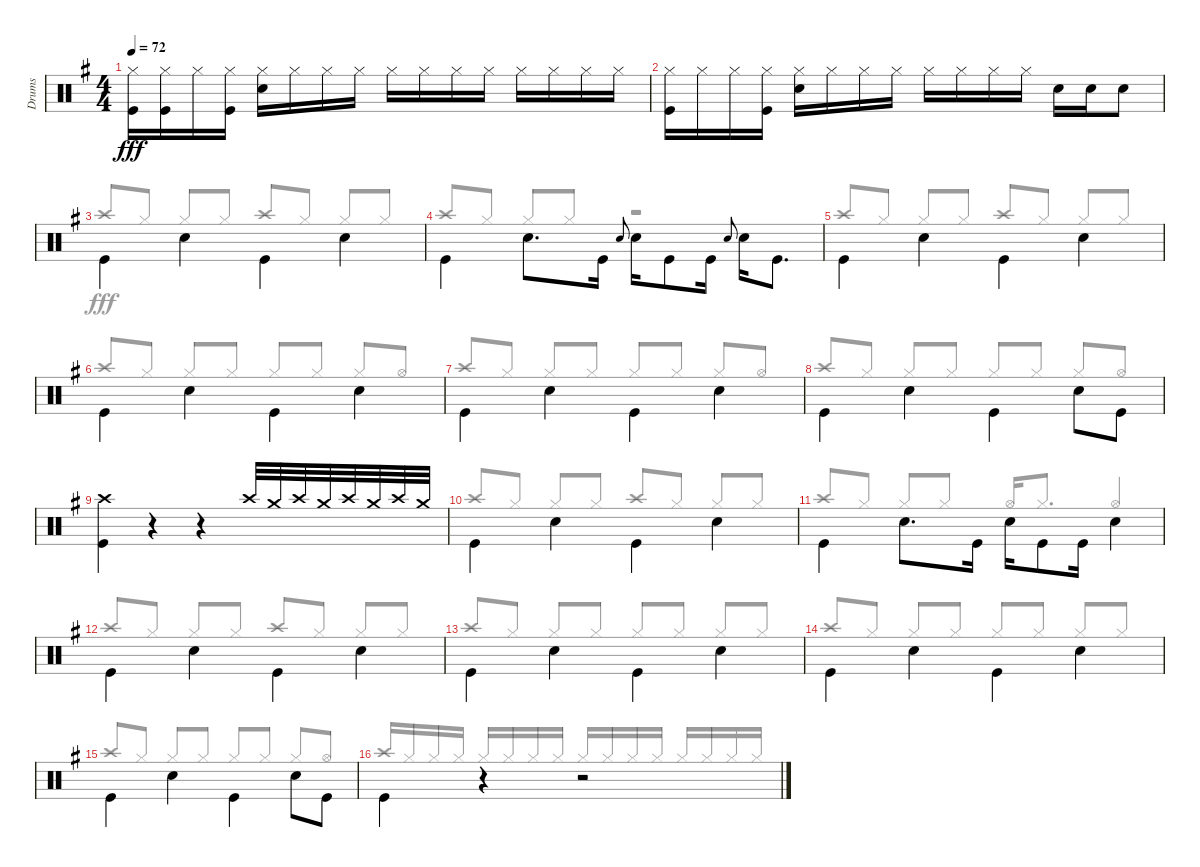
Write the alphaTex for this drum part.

\track ("Drums" "Drums") {instrument percussion}
\staff {score}
\articulation defaults
\voice
\ts (4 4)
\tempo 72
\clef neutral
\ks g
("Hi-Hat (closed)" "Kick (hit)").16{dy fff} ("Hi-Hat (closed)" "Kick (hit)").16 "Hi-Hat (closed)".16 ("Hi-Hat (closed)" "Kick (hit)").16 ("Hi-Hat (closed)" "Snare (hit) 2").16 "Hi-Hat (closed)".16 "Hi-Hat (closed)".16 "Hi-Hat (closed)".16 "Hi-Hat (closed)".16 "Hi-Hat (closed)".16 "Hi-Hat (closed)".16 "Hi-Hat (closed)".16 "Hi-Hat (closed)".16 "Hi-Hat (closed)".16 "Hi-Hat (closed)".16 "Hi-Hat (closed)".16 |
("Hi-Hat (closed)" "Kick (hit)").16{beam Down} "Hi-Hat (closed)".16{beam Down} "Hi-Hat (closed)".16{beam Down} ("Hi-Hat (closed)" "Kick (hit)").16{beam Down} ("Hi-Hat (closed)" "Snare (hit) 2").16{beam Down} "Hi-Hat (closed)".16{beam Down} "Hi-Hat (closed)".16{beam Down} "Hi-Hat (closed)".16{beam Down} "Hi-Hat (closed)".16{beam Down} "Hi-Hat (closed)".16{beam Down} "Hi-Hat (closed)".16{beam Down} "Hi-Hat (closed)".16{beam Down} "Snare (hit) 2".16 "Snare (hit) 2".16 "Snare (hit) 2".8 |
"Kick (hit)".4{beam Down} "Snare (hit) 2".4{beam Down} "Kick (hit)".4{beam Down} "Snare (hit) 2".4{beam Down} |
"Kick (hit)".4{beam Down} "Snare (hit) 2".8{d beam Down} "Kick (hit)".16{beam Down} "Snare (hit) 2".8{gr onbeat} "Snare (hit) 2".16{beam Down} "Kick (hit)".8{beam Down} "Kick (hit)".16{beam Down} "Snare (hit) 2".8{gr onbeat} "Snare (hit) 2".16{beam Down} "Kick (hit)".8{d beam Down} |
"Kick (hit)".4{beam Down} "Snare (hit) 2".4{beam Down} "Kick (hit)".4{beam Down} "Snare (hit) 2".4{beam Down} |
"Kick (hit)".4{beam Down} "Snare (hit) 2".4{beam Down} "Kick (hit)".4{beam Down} "Snare (hit) 2".4{beam Down} |
"Kick (hit)".4{beam Down} "Snare (hit) 2".4{beam Down} "Kick (hit)".4{beam Down} "Snare (hit) 2".4{beam Down} |
"Kick (hit)".4{beam Down} "Snare (hit) 2".4{beam Down} "Kick (hit)".4{beam Down} "Snare (hit) 2".8{beam Down} "Kick (hit)".8{beam Down} |
("Crash high (hit)" "Kick (hit)").4{beam Down} r.4 r.4 "Crash high (hit)".32{beam Up} "Crash medium (hit)".32{beam Up} "Crash high (hit)".32{beam Up} "Crash medium (hit)".32{beam Up} "Crash high (hit)".32{beam Up} "Crash medium (hit)".32{beam Up} "Crash high (hit)".32{beam Up} "Crash medium (hit)".32{beam Up} |
"Kick (hit)".4{beam Down} "Snare (hit) 2".4{beam Down} "Kick (hit)".4{beam Down} "Snare (hit) 2".4{beam Down} |
"Kick (hit)".4{beam Down} "Snare (hit) 2".8{d beam Down} "Kick (hit)".16{beam Down} "Snare (hit) 2".16{beam Down} "Kick (hit)".8{beam Down} "Kick (hit)".16{beam Down} "Snare (hit) 2".4{beam Down} |
"Kick (hit)".4{beam Down} "Snare (hit) 2".4{beam Down} "Kick (hit)".4{beam Down} "Snare (hit) 2".4{beam Down} |
"Kick (hit)".4{beam Down} "Snare (hit) 2".4{beam Down} "Kick (hit)".4{beam Down} "Snare (hit) 2".4{beam Down} |
"Kick (hit)".4{beam Down} "Snare (hit) 2".4{beam Down} "Kick (hit)".4{beam Down} "Snare (hit) 2".4{beam Down} |
"Kick (hit)".4{beam Down} "Snare (hit) 2".4{beam Down} "Kick (hit)".4{beam Down} "Snare (hit) 2".8{beam Down} "Kick (hit)".8{beam Down} |
"Kick (hit)".4{beam Down} r.4 r.2
\voice
\clef neutral
\ottava regular
\simile none
\ks g
|
|
"Crash high (hit)".8{beam Up} "Hi-Hat (closed)".8{beam Up} "Hi-Hat (closed)".8{beam Up} "Hi-Hat (closed)".8{beam Up} "Crash high (hit)".8{beam Up} "Hi-Hat (closed)".8{beam Up} "Hi-Hat (closed)".8{beam Up} "Hi-Hat (closed)".8{beam Up} |
"Crash high (hit)".8{beam Up} "Hi-Hat (closed)".8{beam Up} "Hi-Hat (closed)".8{beam Up} "Hi-Hat (closed)".8{beam Up} r.2 |
"Crash high (hit)".8{beam Up} "Hi-Hat (closed)".8{beam Up} "Hi-Hat (closed)".8{beam Up} "Hi-Hat (closed)".8{beam Up} "Crash high (hit)".8{beam Up} "Hi-Hat (closed)".8{beam Up} "Hi-Hat (closed)".8{beam Up} "Hi-Hat (closed)".8{beam Up} |
"Crash high (hit)".8{beam Up} "Hi-Hat (closed)".8{beam Up} "Hi-Hat (closed)".8{beam Up} "Hi-Hat (closed)".8{beam Up} "Hi-Hat (closed)".8{beam Up} "Hi-Hat (closed)".8{beam Up} "Hi-Hat (closed)".8{beam Up} "Hi-Hat (open)".8{beam Up} |
"Crash high (hit)".8{beam Up} "Hi-Hat (closed)".8{beam Up} "Hi-Hat (closed)".8{beam Up} "Hi-Hat (closed)".8{beam Up} "Hi-Hat (closed)".8{beam Up} "Hi-Hat (closed)".8{beam Up} "Hi-Hat (closed)".8{beam Up} "Hi-Hat (open)".8{beam Up} |
"Crash high (hit)".8{beam Up} "Hi-Hat (closed)".8{beam Up} "Hi-Hat (closed)".8{beam Up} "Hi-Hat (closed)".8{beam Up} "Hi-Hat (closed)".8{beam Up} "Hi-Hat (closed)".8{beam Up} "Hi-Hat (closed)".8{beam Up} "Hi-Hat (open)".8{beam Up} |
|
"Crash high (hit)".8{beam Up} "Hi-Hat (closed)".8{beam Up} "Hi-Hat (closed)".8{beam Up} "Hi-Hat (closed)".8{beam Up} "Crash high (hit)".8{beam Up} "Hi-Hat (closed)".8{beam Up} "Hi-Hat (closed)".8{beam Up} "Hi-Hat (closed)".8{beam Up} |
"Crash high (hit)".8{beam Up} "Hi-Hat (closed)".8{beam Up} "Hi-Hat (closed)".8{beam Up} "Hi-Hat (closed)".8{beam Up} "Hi-Hat (open)".16{beam Up} "Hi-Hat (closed)".8{d beam Up} "Hi-Hat (open)".4{beam Up} |
"Crash high (hit)".8{beam Up} "Hi-Hat (closed)".8{beam Up} "Hi-Hat (closed)".8{beam Up} "Hi-Hat (closed)".8{beam Up} "Crash high (hit)".8{beam Up} "Hi-Hat (closed)".8{beam Up} "Hi-Hat (closed)".8{beam Up} "Hi-Hat (closed)".8{beam Up} |
"Crash high (hit)".8{beam Up} "Hi-Hat (closed)".8{beam Up} "Hi-Hat (closed)".8{beam Up} "Hi-Hat (closed)".8{beam Up} "Hi-Hat (closed)".8{beam Up} "Hi-Hat (closed)".8{beam Up} "Hi-Hat (closed)".8{beam Up} "Hi-Hat (closed)".8{beam Up} |
"Crash high (hit)".8{beam Up} "Hi-Hat (closed)".8{beam Up} "Hi-Hat (closed)".8{beam Up} "Hi-Hat (closed)".8{beam Up} "Hi-Hat (closed)".8{beam Up} "Hi-Hat (closed)".8{beam Up} "Hi-Hat (closed)".8{beam Up} "Hi-Hat (closed)".8{beam Up} |
"Crash high (hit)".8{beam Up} "Hi-Hat (closed)".8{beam Up} "Hi-Hat (closed)".8{beam Up} "Hi-Hat (closed)".8{beam Up} "Hi-Hat (closed)".8{beam Up} "Hi-Hat (closed)".8{beam Up} "Hi-Hat (closed)".8{beam Up} "Hi-Hat (open)".8{beam Up} |
"Crash high (hit)".16{beam Up} "Hi-Hat (closed)".16{beam Up} "Hi-Hat (closed)".16{beam Up} "Hi-Hat (closed)".16{beam Up} "Hi-Hat (closed)".16{beam Up} "Hi-Hat (closed)".16{beam Up} "Hi-Hat (closed)".16{beam Up} "Hi-Hat (closed)".16{beam Up} "Hi-Hat (closed)".16{beam Up} "Hi-Hat (closed)".16{beam Up} "Hi-Hat (closed)".16{beam Up} "Hi-Hat (closed)".16{beam Up} "Hi-Hat (closed)".16{beam Up} "Hi-Hat (closed)".16{beam Up} "Hi-Hat (closed)".16{beam Up} "Hi-Hat (closed)".16{beam Up}
